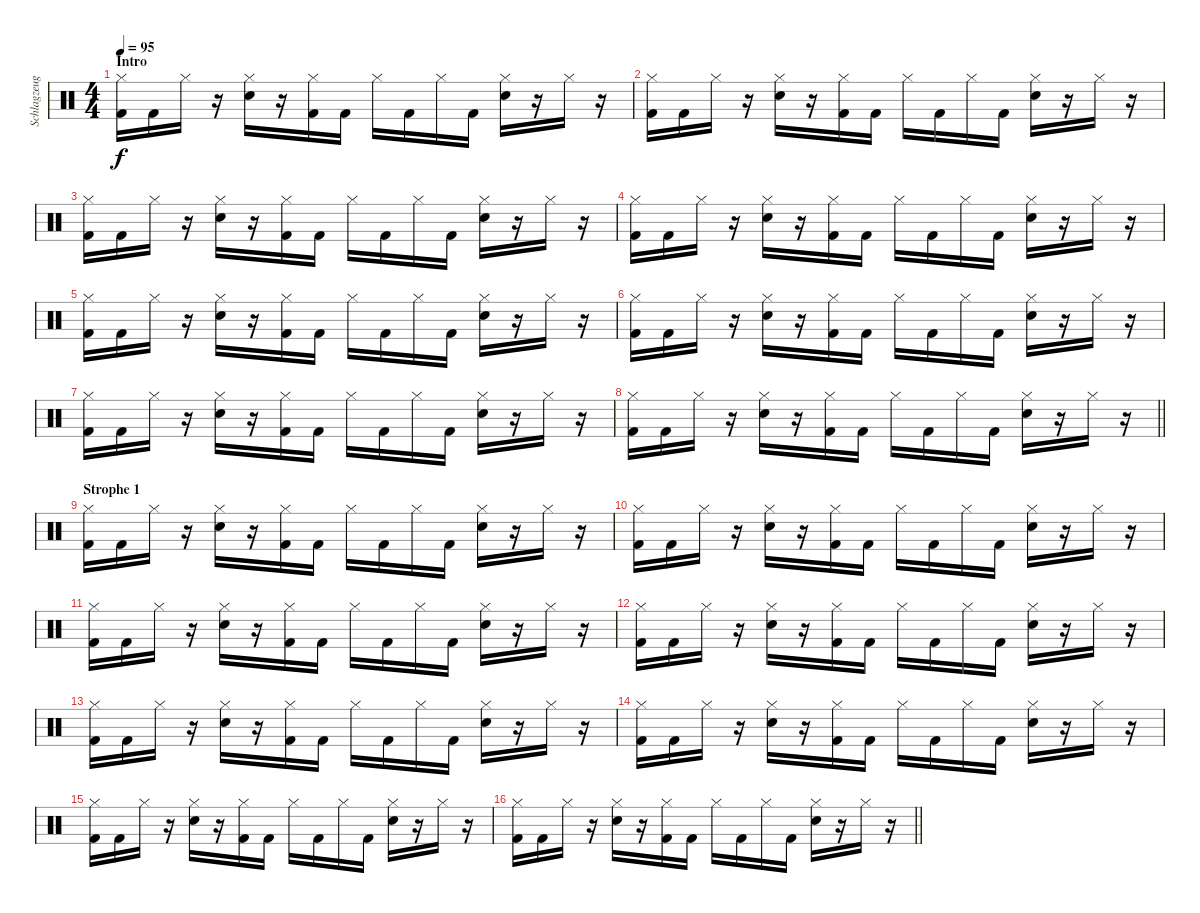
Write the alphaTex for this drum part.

\track ("Schlagzeug" "Schlagzeug") {instrument percussion}
\staff {score}
\articulation defaults
\ts (4 4)
\section ("" "Intro")
\tempo 95
\clef neutral
\ks c
("Hi-Hat (closed)" "Kick (hit) 2").16{dy f} "Kick (hit) 2".16 "Hi-Hat (closed)".16 r.16 ("Hi-Hat (closed)" "Snare (hit) 2").16 r.16 ("Hi-Hat (closed)" "Kick (hit) 2").16 "Kick (hit) 2".16 "Hi-Hat (closed)".16 "Kick (hit) 2".16 "Hi-Hat (closed)".16 "Kick (hit) 2".16 ("Hi-Hat (closed)" "Snare (hit) 2").16 r.16 "Hi-Hat (closed)".16 r.16 |
("Hi-Hat (closed)" "Kick (hit) 2").16 "Kick (hit) 2".16 "Hi-Hat (closed)".16 r.16 ("Hi-Hat (closed)" "Snare (hit) 2").16 r.16 ("Hi-Hat (closed)" "Kick (hit) 2").16 "Kick (hit) 2".16 "Hi-Hat (closed)".16 "Kick (hit) 2".16 "Hi-Hat (closed)".16 "Kick (hit) 2".16 ("Hi-Hat (closed)" "Snare (hit) 2").16 r.16 "Hi-Hat (closed)".16 r.16 |
("Hi-Hat (closed)" "Kick (hit) 2").16 "Kick (hit) 2".16 "Hi-Hat (closed)".16 r.16 ("Hi-Hat (closed)" "Snare (hit) 2").16 r.16 ("Hi-Hat (closed)" "Kick (hit) 2").16 "Kick (hit) 2".16 "Hi-Hat (closed)".16 "Kick (hit) 2".16 "Hi-Hat (closed)".16 "Kick (hit) 2".16 ("Hi-Hat (closed)" "Snare (hit) 2").16 r.16 "Hi-Hat (closed)".16 r.16 |
("Hi-Hat (closed)" "Kick (hit) 2").16 "Kick (hit) 2".16 "Hi-Hat (closed)".16 r.16 ("Hi-Hat (closed)" "Snare (hit) 2").16 r.16 ("Hi-Hat (closed)" "Kick (hit) 2").16 "Kick (hit) 2".16 "Hi-Hat (closed)".16 "Kick (hit) 2".16 "Hi-Hat (closed)".16 "Kick (hit) 2".16 ("Hi-Hat (closed)" "Snare (hit) 2").16 r.16 "Hi-Hat (closed)".16 r.16 |
("Hi-Hat (closed)" "Kick (hit) 2").16 "Kick (hit) 2".16 "Hi-Hat (closed)".16 r.16 ("Hi-Hat (closed)" "Snare (hit) 2").16 r.16 ("Hi-Hat (closed)" "Kick (hit) 2").16 "Kick (hit) 2".16 "Hi-Hat (closed)".16 "Kick (hit) 2".16 "Hi-Hat (closed)".16 "Kick (hit) 2".16 ("Hi-Hat (closed)" "Snare (hit) 2").16 r.16 "Hi-Hat (closed)".16 r.16 |
("Hi-Hat (closed)" "Kick (hit) 2").16 "Kick (hit) 2".16 "Hi-Hat (closed)".16 r.16 ("Hi-Hat (closed)" "Snare (hit) 2").16 r.16 ("Hi-Hat (closed)" "Kick (hit) 2").16 "Kick (hit) 2".16 "Hi-Hat (closed)".16 "Kick (hit) 2".16 "Hi-Hat (closed)".16 "Kick (hit) 2".16 ("Hi-Hat (closed)" "Snare (hit) 2").16 r.16 "Hi-Hat (closed)".16 r.16 |
("Hi-Hat (closed)" "Kick (hit) 2").16 "Kick (hit) 2".16 "Hi-Hat (closed)".16 r.16 ("Hi-Hat (closed)" "Snare (hit) 2").16 r.16 ("Hi-Hat (closed)" "Kick (hit) 2").16 "Kick (hit) 2".16 "Hi-Hat (closed)".16 "Kick (hit) 2".16 "Hi-Hat (closed)".16 "Kick (hit) 2".16 ("Hi-Hat (closed)" "Snare (hit) 2").16 r.16 "Hi-Hat (closed)".16 r.16 |
\barLineRight lightlight
("Hi-Hat (closed)" "Kick (hit) 2").16 "Kick (hit) 2".16 "Hi-Hat (closed)".16 r.16 ("Hi-Hat (closed)" "Snare (hit) 2").16 r.16 ("Hi-Hat (closed)" "Kick (hit) 2").16 "Kick (hit) 2".16 "Hi-Hat (closed)".16 "Kick (hit) 2".16 "Hi-Hat (closed)".16 "Kick (hit) 2".16 ("Hi-Hat (closed)" "Snare (hit) 2").16 r.16 "Hi-Hat (closed)".16 r.16 |
\section ("" "Strophe 1")
("Hi-Hat (closed)" "Kick (hit) 2").16 "Kick (hit) 2".16 "Hi-Hat (closed)".16 r.16 ("Hi-Hat (closed)" "Snare (hit) 2").16 r.16 ("Hi-Hat (closed)" "Kick (hit) 2").16 "Kick (hit) 2".16 "Hi-Hat (closed)".16 "Kick (hit) 2".16 "Hi-Hat (closed)".16 "Kick (hit) 2".16 ("Hi-Hat (closed)" "Snare (hit) 2").16 r.16 "Hi-Hat (closed)".16 r.16 |
("Hi-Hat (closed)" "Kick (hit) 2").16 "Kick (hit) 2".16 "Hi-Hat (closed)".16 r.16 ("Hi-Hat (closed)" "Snare (hit) 2").16 r.16 ("Hi-Hat (closed)" "Kick (hit) 2").16 "Kick (hit) 2".16 "Hi-Hat (closed)".16 "Kick (hit) 2".16 "Hi-Hat (closed)".16 "Kick (hit) 2".16 ("Hi-Hat (closed)" "Snare (hit) 2").16 r.16 "Hi-Hat (closed)".16 r.16 |
("Hi-Hat (closed)" "Kick (hit) 2").16 "Kick (hit) 2".16 "Hi-Hat (closed)".16 r.16 ("Hi-Hat (closed)" "Snare (hit) 2").16 r.16 ("Hi-Hat (closed)" "Kick (hit) 2").16 "Kick (hit) 2".16 "Hi-Hat (closed)".16 "Kick (hit) 2".16 "Hi-Hat (closed)".16 "Kick (hit) 2".16 ("Hi-Hat (closed)" "Snare (hit) 2").16 r.16 "Hi-Hat (closed)".16 r.16 |
("Hi-Hat (closed)" "Kick (hit) 2").16 "Kick (hit) 2".16 "Hi-Hat (closed)".16 r.16 ("Hi-Hat (closed)" "Snare (hit) 2").16 r.16 ("Hi-Hat (closed)" "Kick (hit) 2").16 "Kick (hit) 2".16 "Hi-Hat (closed)".16 "Kick (hit) 2".16 "Hi-Hat (closed)".16 "Kick (hit) 2".16 ("Hi-Hat (closed)" "Snare (hit) 2").16 r.16 "Hi-Hat (closed)".16 r.16 |
("Hi-Hat (closed)" "Kick (hit) 2").16 "Kick (hit) 2".16 "Hi-Hat (closed)".16 r.16 ("Hi-Hat (closed)" "Snare (hit) 2").16 r.16 ("Hi-Hat (closed)" "Kick (hit) 2").16 "Kick (hit) 2".16 "Hi-Hat (closed)".16 "Kick (hit) 2".16 "Hi-Hat (closed)".16 "Kick (hit) 2".16 ("Hi-Hat (closed)" "Snare (hit) 2").16 r.16 "Hi-Hat (closed)".16 r.16 |
("Hi-Hat (closed)" "Kick (hit) 2").16 "Kick (hit) 2".16 "Hi-Hat (closed)".16 r.16 ("Hi-Hat (closed)" "Snare (hit) 2").16 r.16 ("Hi-Hat (closed)" "Kick (hit) 2").16 "Kick (hit) 2".16 "Hi-Hat (closed)".16 "Kick (hit) 2".16 "Hi-Hat (closed)".16 "Kick (hit) 2".16 ("Hi-Hat (closed)" "Snare (hit) 2").16 r.16 "Hi-Hat (closed)".16 r.16 |
("Hi-Hat (closed)" "Kick (hit) 2").16 "Kick (hit) 2".16 "Hi-Hat (closed)".16 r.16 ("Hi-Hat (closed)" "Snare (hit) 2").16 r.16 ("Hi-Hat (closed)" "Kick (hit) 2").16 "Kick (hit) 2".16 "Hi-Hat (closed)".16 "Kick (hit) 2".16 "Hi-Hat (closed)".16 "Kick (hit) 2".16 ("Hi-Hat (closed)" "Snare (hit) 2").16 r.16 "Hi-Hat (closed)".16 r.16 |
\barLineRight lightlight
("Hi-Hat (closed)" "Kick (hit) 2").16 "Kick (hit) 2".16 "Hi-Hat (closed)".16 r.16 ("Hi-Hat (closed)" "Snare (hit) 2").16 r.16 ("Hi-Hat (closed)" "Kick (hit) 2").16 "Kick (hit) 2".16 "Hi-Hat (closed)".16 "Kick (hit) 2".16 "Hi-Hat (closed)".16 "Kick (hit) 2".16 ("Hi-Hat (closed)" "Snare (hit) 2").16 r.16 "Hi-Hat (closed)".16 r.16
